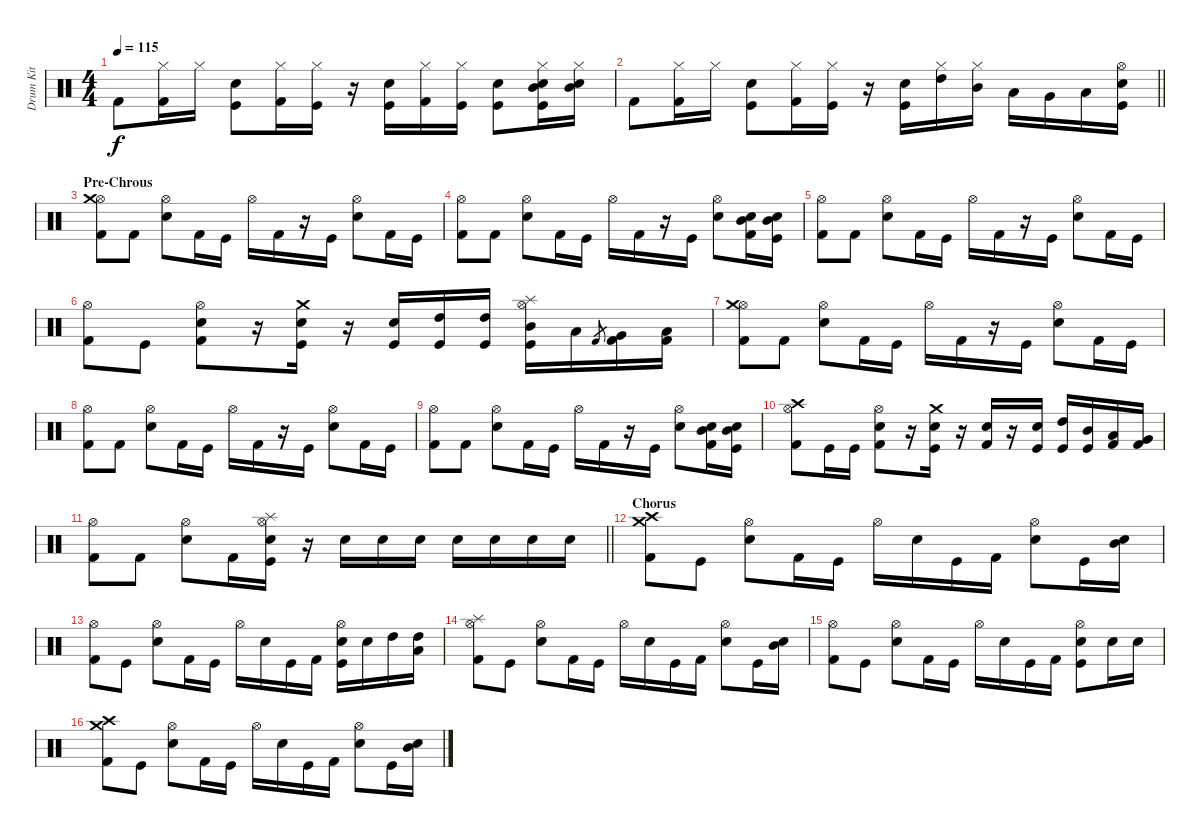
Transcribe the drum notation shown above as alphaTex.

\track ("Drum Kit " "Drum Kit ") {instrument percussion}
\staff {score}
\articulation defaults
\ts (4 4)
\tempo 115
\clef neutral
\ks c "Kick (hit) 2".8{dy f}
("Hi-Hat (closed)" "Kick (hit) 2").16 "Hi-Hat (closed)".16 ("Electric Snare (hit)" "Kick (hit)").8 ("Hi-Hat (closed)" "Kick (hit) 2").16 ("Hi-Hat (closed)" "Kick (hit)").16 r.16 ("Electric Snare (hit)" "Kick (hit)").16 ("Hi-Hat (closed)" "Kick (hit) 2").16 ("Hi-Hat (closed)" "Kick (hit)").16 ("Snare (hit) 2" "Kick (hit)").8 ("Hi-Hat (closed)" "Mid Tom (hit)" "Electric Snare (hit)" "Kick (hit)").16 ("Hi-Hat (closed)" "Mid Tom (hit)" "Electric Snare (hit)").16 |
\barLineRight lightlight "Kick (hit) 2".8
("Hi-Hat (closed)" "Kick (hit) 2").16 "Hi-Hat (closed)".16 ("Electric Snare (hit)" "Kick (hit)").8 ("Hi-Hat (closed)" "Kick (hit) 2").16 ("Hi-Hat (closed)" "Kick (hit)").16 r.16 ("Electric Snare (hit)" "Kick (hit)").16 ("Hi-Hat (closed)" "High Tom (hit)").16 ("Hi-Hat (closed)" "Mid Tom (hit)").16 "Low Tom (hit)".16 "Very Low Tom (hit)".16 "Low Floor Tom (hit)".16 ("Hi-Hat (open)" "Snare (hit) 2" "Kick (hit)").16 |
\section ("" "Pre-Chrous ")
("Hi-Hat (open)" "Crash medium (hit)" "Kick (hit) 2").8 "Kick (hit) 2".8 ("Hi-Hat (open)" "Electric Snare (hit)").8 "Kick (hit) 2".16 "Kick (hit)".16 "Hi-Hat (open)".16 "Kick (hit) 2".16 r.16 "Kick (hit)".16 ("Hi-Hat (open)" "Electric Snare (hit)").8 "Kick (hit) 2".16 "Kick (hit)".16 |
("Hi-Hat (open)" "Kick (hit) 2").8 "Kick (hit) 2".8 ("Hi-Hat (open)" "Electric Snare (hit)").8 "Kick (hit) 2".16 "Kick (hit)".16 "Hi-Hat (open)".16 "Kick (hit) 2".16 r.16 "Kick (hit)".16 ("Hi-Hat (open)" "Electric Snare (hit)").8 ("Mid Tom (hit)" "Snare (hit) 2" "Kick (hit) 2").16 ("Mid Tom (hit)" "Snare (hit) 2" "Kick (hit)").16 |
("Hi-Hat (open)" "Kick (hit) 2").8 "Kick (hit) 2".8 ("Hi-Hat (open)" "Electric Snare (hit)").8 "Kick (hit) 2".16 "Kick (hit)".16 "Hi-Hat (open)".16 "Kick (hit) 2".16 r.16 "Kick (hit)".16 ("Hi-Hat (open)" "Electric Snare (hit)").8 "Kick (hit) 2".16 "Kick (hit)".16 |
("Hi-Hat (open)" "Kick (hit) 2").8 "Kick (hit)".8 ("Hi-Hat (open)" "Electric Snare (hit)" "Kick (hit) 2").8 r.16 ("Crash medium (hit)" "Electric Snare (hit)" "Kick (hit)").16 r.16 ("Electric Snare (hit)" "Kick (hit)").16 ("High Tom (hit)" "Kick (hit)").16 ("High Tom (hit)" "Kick (hit)").16 ("Splash (hit)" "Hi-Hat (open)" "Mid Tom (hit)" "Kick (hit)").16 "Low Tom (hit)".16 "Kick (hit) 2".8{gr} ("Very Low Tom (hit)" "Kick (hit) 2").16 ("Low Floor Tom (hit)" "Kick (hit) 2").16 |
("Hi-Hat (open)" "Crash medium (hit)" "Kick (hit) 2").8 "Kick (hit) 2".8 ("Hi-Hat (open)" "Electric Snare (hit)").8 "Kick (hit) 2".16 "Kick (hit)".16 "Hi-Hat (open)".16 "Kick (hit) 2".16 r.16 "Kick (hit)".16 ("Hi-Hat (open)" "Electric Snare (hit)").8 "Kick (hit) 2".16 "Kick (hit)".16 |
("Hi-Hat (open)" "Kick (hit) 2").8 "Kick (hit) 2".8 ("Hi-Hat (open)" "Electric Snare (hit)").8 "Kick (hit) 2".16 "Kick (hit)".16 "Hi-Hat (open)".16 "Kick (hit) 2".16 r.16 "Kick (hit)".16 ("Hi-Hat (open)" "Electric Snare (hit)").8 "Kick (hit) 2".16 "Kick (hit)".16 |
("Hi-Hat (open)" "Kick (hit) 2").8 "Kick (hit) 2".8 ("Hi-Hat (open)" "Electric Snare (hit)").8 "Kick (hit) 2".16 "Kick (hit)".16 "Hi-Hat (open)".16 "Kick (hit) 2".16 r.16 "Kick (hit)".16 ("Hi-Hat (open)" "Electric Snare (hit)").8 ("Mid Tom (hit)" "Snare (hit) 2" "Kick (hit) 2").16 ("Mid Tom (hit)" "Snare (hit) 2" "Kick (hit)").16 |
("Crash high (hit)" "Hi-Hat (open)" "Kick (hit) 2").8 "Kick (hit)".16 "Kick (hit)".16 ("Hi-Hat (open)" "Electric Snare (hit)" "Kick (hit) 2").8 r.16 ("Crash medium (hit)" "Electric Snare (hit)" "Kick (hit)").16 r.16 ("Snare (hit) 2" "Kick (hit) 2").16 r.16 ("Snare (hit) 2" "Kick (hit)").16 ("High Tom (hit)" "Kick (hit)").16 ("Mid Tom (hit)" "Kick (hit)").16 ("Low Tom (hit)" "Kick (hit) 2").16 ("Very Low Tom (hit)" "Kick (hit) 2").16 |
\barLineRight lightlight
("Hi-Hat (open)" "Kick (hit) 2").8 "Kick (hit) 2".8 ("Hi-Hat (open)" "Electric Snare (hit)").8 "Kick (hit) 2".16 ("Hi-Hat (open)" "Splash (hit)" "Electric Snare (hit)" "Kick (hit)").16 r.16 "Electric Snare (hit)".16 "Electric Snare (hit)".16 "Electric Snare (hit)".16 "Electric Snare (hit)".16 "Electric Snare (hit)".16 "Electric Snare (hit)".16 "Electric Snare (hit)".16 |
\section ("" "Chorus ")
("Crash high (hit)" "Crash medium (hit)" "Kick (hit) 2").8 "Kick (hit)".8 ("Hi-Hat (open)" "Electric Snare (hit)").8 "Kick (hit) 2".16 "Kick (hit)".16 "Hi-Hat (open)".16 "Electric Snare (hit)".16 "Kick (hit)".16 "Kick (hit) 2".16 ("Hi-Hat (open)" "Snare (hit) 2").8 "Kick (hit)".16 ("Mid Tom (hit)" "Electric Snare (hit)").16 |
("Hi-Hat (open)" "Kick (hit) 2").8 "Kick (hit)".8 ("Hi-Hat (open)" "Electric Snare (hit)").8 "Kick (hit) 2".16 "Kick (hit)".16 "Hi-Hat (open)".16 "Electric Snare (hit)".16 "Kick (hit)".16 "Kick (hit) 2".16 ("Hi-Hat (open)" "Snare (hit) 2" "Kick (hit)").16 "Electric Snare (hit)".16 "High Tom (hit)".16 ("High Tom (hit)" "Low Tom (hit)").16 |
("Splash (hit)" "Hi-Hat (open)" "Kick (hit) 2").8 "Kick (hit)".8 ("Hi-Hat (open)" "Electric Snare (hit)").8 "Kick (hit) 2".16 "Kick (hit)".16 "Hi-Hat (open)".16 "Electric Snare (hit)".16 "Kick (hit)".16 "Kick (hit) 2".16 ("Hi-Hat (open)" "Snare (hit) 2").8 "Kick (hit)".16 ("Mid Tom (hit)" "Electric Snare (hit)").16 |
("Hi-Hat (open)" "Kick (hit) 2").8 "Kick (hit)".8 ("Hi-Hat (open)" "Electric Snare (hit)").8 "Kick (hit) 2".16 "Kick (hit)".16 "Hi-Hat (open)".16 "Electric Snare (hit)".16 "Kick (hit)".16 "Kick (hit) 2".16 ("Hi-Hat (open)" "Snare (hit) 2" "Kick (hit)").8 "Electric Snare (hit)".16 "Electric Snare (hit)".16 |
("Crash high (hit)" "Crash medium (hit)" "Kick (hit) 2").8 "Kick (hit)".8 ("Hi-Hat (open)" "Electric Snare (hit)").8 "Kick (hit) 2".16 "Kick (hit)".16 "Hi-Hat (open)".16 "Electric Snare (hit)".16 "Kick (hit)".16 "Kick (hit) 2".16 ("Hi-Hat (open)" "Snare (hit) 2").8 "Kick (hit)".16 ("Mid Tom (hit)" "Electric Snare (hit)").16
